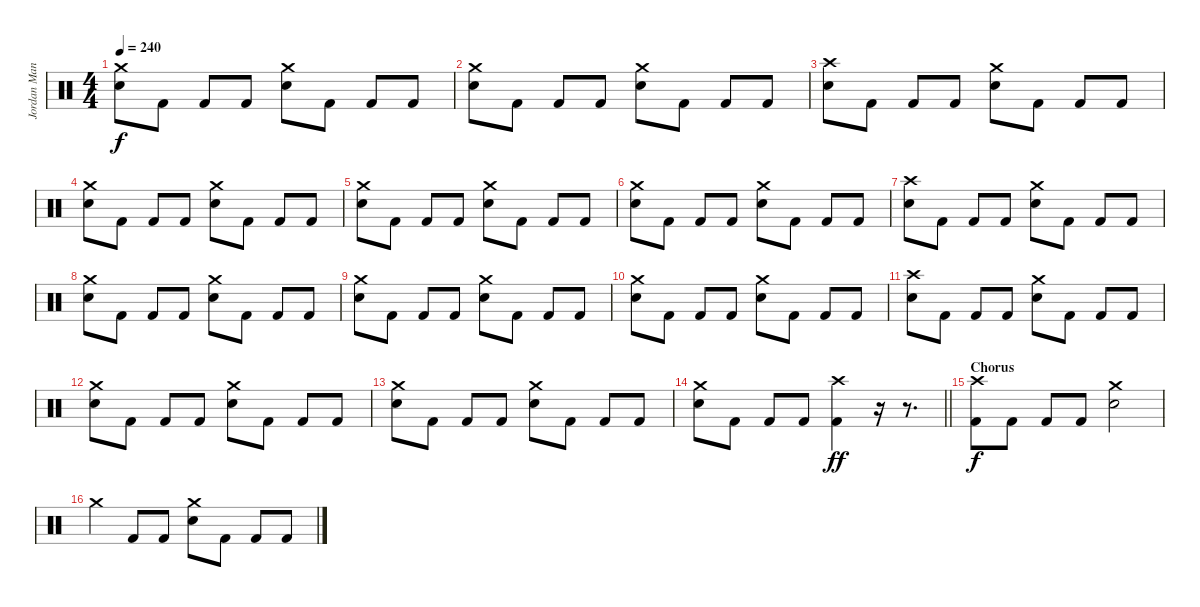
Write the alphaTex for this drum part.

\track ("Jordan Mancino" "Jordan Man") {instrument percussion}
\staff {score}
\articulation defaults
\ts (4 4)
\tempo 240
\clef neutral
\ks c
("Crash medium (hit)" "Electric Snare (hit)").8{dy f} "Kick (hit) 2".8 "Kick (hit) 2".8 "Kick (hit) 2".8 ("Crash medium (hit)" "Electric Snare (hit)").8 "Kick (hit) 2".8 "Kick (hit) 2".8 "Kick (hit) 2".8 |
("Crash medium (hit)" "Electric Snare (hit)").8 "Kick (hit) 2".8 "Kick (hit) 2".8 "Kick (hit) 2".8 ("Crash medium (hit)" "Electric Snare (hit)").8 "Kick (hit) 2".8 "Kick (hit) 2".8 "Kick (hit) 2".8 |
("Crash high (hit)" "Electric Snare (hit)").8 "Kick (hit) 2".8 "Kick (hit) 2".8 "Kick (hit) 2".8 ("Crash medium (hit)" "Electric Snare (hit)").8 "Kick (hit) 2".8 "Kick (hit) 2".8 "Kick (hit) 2".8 |
("Crash medium (hit)" "Electric Snare (hit)").8 "Kick (hit) 2".8 "Kick (hit) 2".8 "Kick (hit) 2".8 ("Crash medium (hit)" "Electric Snare (hit)").8 "Kick (hit) 2".8 "Kick (hit) 2".8 "Kick (hit) 2".8 |
("Crash medium (hit)" "Electric Snare (hit)").8 "Kick (hit) 2".8 "Kick (hit) 2".8 "Kick (hit) 2".8 ("Crash medium (hit)" "Electric Snare (hit)").8 "Kick (hit) 2".8 "Kick (hit) 2".8 "Kick (hit) 2".8 |
("Crash medium (hit)" "Electric Snare (hit)").8 "Kick (hit) 2".8 "Kick (hit) 2".8 "Kick (hit) 2".8 ("Crash medium (hit)" "Electric Snare (hit)").8 "Kick (hit) 2".8 "Kick (hit) 2".8 "Kick (hit) 2".8 |
("Crash high (hit)" "Electric Snare (hit)").8 "Kick (hit) 2".8 "Kick (hit) 2".8 "Kick (hit) 2".8 ("Crash medium (hit)" "Electric Snare (hit)").8 "Kick (hit) 2".8 "Kick (hit) 2".8 "Kick (hit) 2".8 |
("Crash medium (hit)" "Electric Snare (hit)").8 "Kick (hit) 2".8 "Kick (hit) 2".8 "Kick (hit) 2".8 ("Crash medium (hit)" "Electric Snare (hit)").8 "Kick (hit) 2".8 "Kick (hit) 2".8 "Kick (hit) 2".8 |
("Crash medium (hit)" "Electric Snare (hit)").8 "Kick (hit) 2".8 "Kick (hit) 2".8 "Kick (hit) 2".8 ("Crash medium (hit)" "Electric Snare (hit)").8 "Kick (hit) 2".8 "Kick (hit) 2".8 "Kick (hit) 2".8 |
("Crash medium (hit)" "Electric Snare (hit)").8 "Kick (hit) 2".8 "Kick (hit) 2".8 "Kick (hit) 2".8 ("Crash medium (hit)" "Electric Snare (hit)").8 "Kick (hit) 2".8 "Kick (hit) 2".8 "Kick (hit) 2".8 |
("Crash high (hit)" "Electric Snare (hit)").8 "Kick (hit) 2".8 "Kick (hit) 2".8 "Kick (hit) 2".8 ("Crash medium (hit)" "Electric Snare (hit)").8 "Kick (hit) 2".8 "Kick (hit) 2".8 "Kick (hit) 2".8 |
("Crash medium (hit)" "Electric Snare (hit)").8 "Kick (hit) 2".8 "Kick (hit) 2".8 "Kick (hit) 2".8 ("Crash medium (hit)" "Electric Snare (hit)").8 "Kick (hit) 2".8 "Kick (hit) 2".8 "Kick (hit) 2".8 |
("Crash medium (hit)" "Electric Snare (hit)").8 "Kick (hit) 2".8 "Kick (hit) 2".8 "Kick (hit) 2".8 ("Crash medium (hit)" "Electric Snare (hit)").8 "Kick (hit) 2".8 "Kick (hit) 2".8 "Kick (hit) 2".8 |
\barLineRight lightlight
("Crash medium (hit)" "Electric Snare (hit)").8 "Kick (hit) 2".8 "Kick (hit) 2".8 "Kick (hit) 2".8 ("Crash high (hit)" "Kick (hit) 2").4{dy ff} r.16{volume 0} r.8{d} |
\section ("" "Chorus")
("Crash high (hit)" "Kick (hit) 2").8{dy f volume 16} "Kick (hit) 2".8 "Kick (hit) 2".8 "Kick (hit) 2".8 ("Crash medium (hit)" "Electric Snare (hit)").2 |
"Crash medium (hit)".4 "Kick (hit) 2".8 "Kick (hit) 2".8 ("Crash medium (hit)" "Electric Snare (hit)").8 "Kick (hit) 2".8 "Kick (hit) 2".8 "Kick (hit) 2".8
